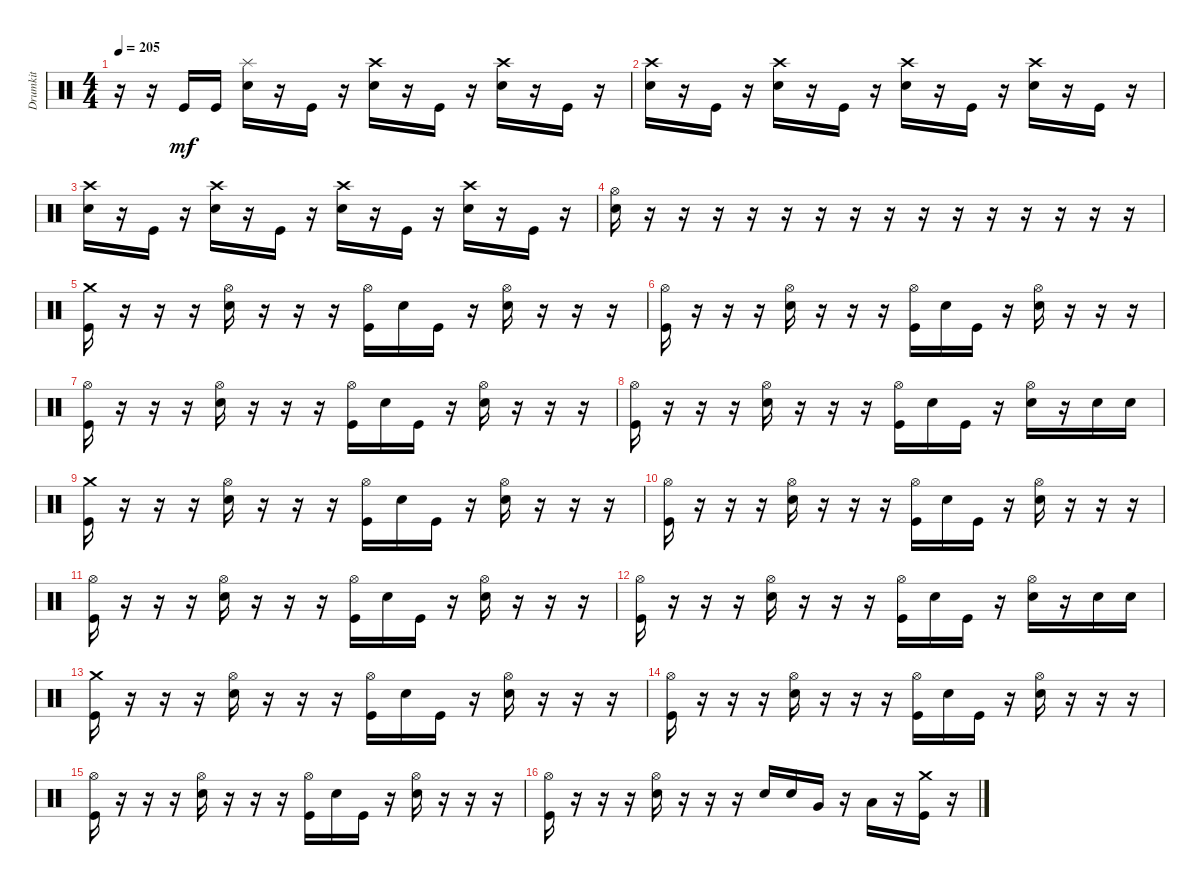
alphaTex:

\track ("Drumkit" "Drumkit") {instrument percussion}
\staff {score}
\articulation defaults
\ts (4 4)
\tempo 205
\clef neutral
\ks c
r.16{dy mf} r.16 "Kick (hit)".16 "Kick (hit)".16 ("Snare (hit) 2" "Splash (hit)").16 r.16 "Kick (hit)".16 r.16 ("Snare (hit) 2" "Crash high (hit)").16 r.16 "Kick (hit)".16 r.16 ("Snare (hit) 2" "Crash high (hit)").16 r.16 "Kick (hit)".16 r.16 |
("Snare (hit) 2" "Crash high (hit)").16 r.16 "Kick (hit)".16 r.16 ("Snare (hit) 2" "Crash high (hit)").16 r.16 "Kick (hit)".16 r.16 ("Snare (hit) 2" "Crash high (hit)").16 r.16 "Kick (hit)".16 r.16 ("Snare (hit) 2" "Crash high (hit)").16 r.16 "Kick (hit)".16 r.16 |
("Snare (hit) 2" "Crash high (hit)").16 r.16 "Kick (hit)".16 r.16 ("Snare (hit) 2" "Crash high (hit)").16 r.16 "Kick (hit)".16 r.16 ("Snare (hit) 2" "Crash high (hit)").16 r.16 "Kick (hit)".16 r.16 ("Snare (hit) 2" "Crash high (hit)").16 r.16 "Kick (hit)".16 r.16 |
("Snare (hit) 2" "Hi-Hat (open)").16 r.16 r.16 r.16 r.16 r.16 r.16 r.16 r.16 r.16 r.16 r.16 r.16 r.16 r.16 r.16 |
("Kick (hit)" "Crash medium (hit)").16 r.16 r.16 r.16 ("Snare (hit) 2" "Hi-Hat (open)").16 r.16 r.16 r.16 ("Hi-Hat (open)" "Kick (hit)").16 "Snare (hit) 2".16 "Kick (hit)".16 r.16 ("Hi-Hat (open)" "Snare (hit) 2").16 r.16 r.16 r.16 |
("Kick (hit)" "Hi-Hat (open)").16 r.16 r.16 r.16 ("Snare (hit) 2" "Hi-Hat (open)").16 r.16 r.16 r.16 ("Kick (hit)" "Hi-Hat (open)").16 "Snare (hit) 2".16 "Kick (hit)".16 r.16 ("Snare (hit) 2" "Hi-Hat (open)").16 r.16 r.16 r.16 |
("Kick (hit)" "Hi-Hat (open)").16 r.16 r.16 r.16 ("Snare (hit) 2" "Hi-Hat (open)").16 r.16 r.16 r.16 ("Kick (hit)" "Hi-Hat (open)").16 "Snare (hit) 2".16 "Kick (hit)".16 r.16 ("Snare (hit) 2" "Hi-Hat (open)").16 r.16 r.16 r.16 |
("Kick (hit)" "Hi-Hat (open)").16 r.16 r.16 r.16 ("Snare (hit) 2" "Hi-Hat (open)").16 r.16 r.16 r.16 ("Kick (hit)" "Hi-Hat (open)").16 "Snare (hit) 2".16 "Kick (hit)".16 r.16 ("Snare (hit) 2" "Hi-Hat (open)").16 r.16 "Snare (hit) 2".16 "Snare (hit) 2".16 |
("Kick (hit)" "Crash medium (hit)").16 r.16 r.16 r.16 ("Snare (hit) 2" "Hi-Hat (open)").16 r.16 r.16 r.16 ("Hi-Hat (open)" "Kick (hit)").16 "Snare (hit) 2".16 "Kick (hit)".16 r.16 ("Hi-Hat (open)" "Snare (hit) 2").16 r.16 r.16 r.16 |
("Kick (hit)" "Hi-Hat (open)").16 r.16 r.16 r.16 ("Snare (hit) 2" "Hi-Hat (open)").16 r.16 r.16 r.16 ("Kick (hit)" "Hi-Hat (open)").16 "Snare (hit) 2".16 "Kick (hit)".16 r.16 ("Snare (hit) 2" "Hi-Hat (open)").16 r.16 r.16 r.16 |
("Kick (hit)" "Hi-Hat (open)").16 r.16 r.16 r.16 ("Snare (hit) 2" "Hi-Hat (open)").16 r.16 r.16 r.16 ("Kick (hit)" "Hi-Hat (open)").16 "Snare (hit) 2".16 "Kick (hit)".16 r.16 ("Snare (hit) 2" "Hi-Hat (open)").16 r.16 r.16 r.16 |
("Kick (hit)" "Hi-Hat (open)").16 r.16 r.16 r.16 ("Snare (hit) 2" "Hi-Hat (open)").16 r.16 r.16 r.16 ("Kick (hit)" "Hi-Hat (open)").16 "Snare (hit) 2".16 "Kick (hit)".16 r.16 ("Snare (hit) 2" "Hi-Hat (open)").16 r.16 "Snare (hit) 2".16 "Snare (hit) 2".16 |
("Kick (hit)" "Crash medium (hit)").16 r.16 r.16 r.16 ("Snare (hit) 2" "Hi-Hat (open)").16 r.16 r.16 r.16 ("Kick (hit)" "Hi-Hat (open)").16 "Snare (hit) 2".16 "Kick (hit)".16 r.16 ("Snare (hit) 2" "Hi-Hat (open)").16 r.16 r.16 r.16 |
("Kick (hit)" "Hi-Hat (open)").16 r.16 r.16 r.16 ("Snare (hit) 2" "Hi-Hat (open)").16 r.16 r.16 r.16 ("Kick (hit)" "Hi-Hat (open)").16 "Snare (hit) 2".16 "Kick (hit)".16 r.16 ("Snare (hit) 2" "Hi-Hat (open)").16 r.16 r.16 r.16 |
("Kick (hit)" "Hi-Hat (open)").16 r.16 r.16 r.16 ("Snare (hit) 2" "Hi-Hat (open)").16 r.16 r.16 r.16 ("Kick (hit)" "Hi-Hat (open)").16 "Snare (hit) 2".16 "Kick (hit)".16 r.16 ("Snare (hit) 2" "Hi-Hat (open)").16 r.16 r.16 r.16 |
("Kick (hit)" "Hi-Hat (open)").16 r.16 r.16 r.16 ("Snare (hit) 2" "Hi-Hat (open)").16 r.16 r.16 r.16 "Snare (hit) 2".16 "Snare (hit) 2".16 "Very Low Tom (hit)".16 r.16 "Low Floor Tom (hit)".16 r.16 ("Crash medium (hit)" "Kick (hit)").16 r.16
